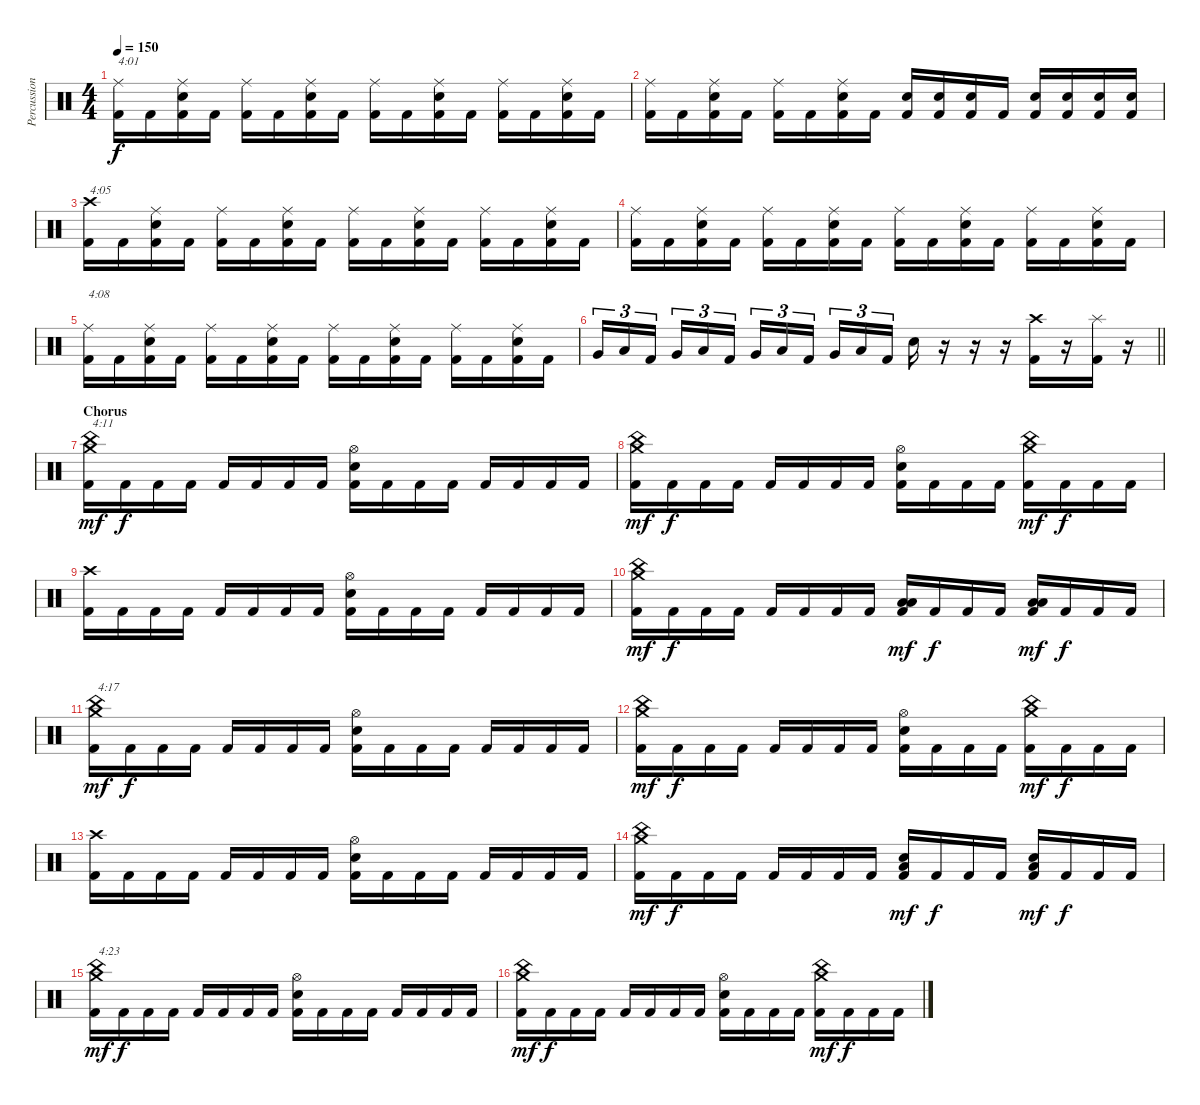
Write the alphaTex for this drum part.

\track ("Percussion" "Percussion") {instrument percussion}
\staff {score}
\articulation defaults
\ts (4 4)
\tempo 150
\clef neutral
\ks c
("Ride (middle)" "Kick (hit) 2").16{txt "4:01" dy f} "Kick (hit) 2".16 ("Ride (middle)" "Electric Snare (hit)" "Kick (hit) 2").16 "Kick (hit) 2".16 ("Ride (middle)" "Kick (hit) 2").16 "Kick (hit) 2".16 ("Ride (middle)" "Electric Snare (hit)" "Kick (hit) 2").16 "Kick (hit) 2".16 ("Ride (middle)" "Kick (hit) 2").16 "Kick (hit) 2".16 ("Ride (middle)" "Electric Snare (hit)" "Kick (hit) 2").16 "Kick (hit) 2".16 ("Ride (middle)" "Kick (hit) 2").16 "Kick (hit) 2".16 ("Ride (middle)" "Electric Snare (hit)" "Kick (hit) 2").16 "Kick (hit) 2".16 |
("Ride (middle)" "Kick (hit) 2").16 "Kick (hit) 2".16 ("Ride (middle)" "Electric Snare (hit)" "Kick (hit) 2").16 "Kick (hit) 2".16 ("Ride (middle)" "Kick (hit) 2").16 "Kick (hit) 2".16 ("Ride (middle)" "Electric Snare (hit)" "Kick (hit) 2").16 "Kick (hit) 2".16 ("Electric Snare (hit)" "Kick (hit) 2").16 ("Electric Snare (hit)" "Kick (hit) 2").16 ("Electric Snare (hit)" "Kick (hit) 2").16 "Kick (hit) 2".16 ("Electric Snare (hit)" "Kick (hit) 2").16 ("Electric Snare (hit)" "Kick (hit) 2").16 ("Electric Snare (hit)" "Kick (hit) 2").16 ("Electric Snare (hit)" "Kick (hit) 2").16 |
("Crash high (hit)" "Kick (hit) 2").16{txt "4:05"} "Kick (hit) 2".16 ("Ride (middle)" "Electric Snare (hit)" "Kick (hit) 2").16 "Kick (hit) 2".16 ("Ride (middle)" "Kick (hit) 2").16 "Kick (hit) 2".16 ("Ride (middle)" "Electric Snare (hit)" "Kick (hit) 2").16 "Kick (hit) 2".16 ("Ride (middle)" "Kick (hit) 2").16 "Kick (hit) 2".16 ("Ride (middle)" "Electric Snare (hit)" "Kick (hit) 2").16 "Kick (hit) 2".16 ("Ride (middle)" "Kick (hit) 2").16 "Kick (hit) 2".16 ("Ride (middle)" "Electric Snare (hit)" "Kick (hit) 2").16 "Kick (hit) 2".16 |
("Ride (middle)" "Kick (hit) 2").16 "Kick (hit) 2".16 ("Ride (middle)" "Electric Snare (hit)" "Kick (hit) 2").16 "Kick (hit) 2".16 ("Ride (middle)" "Kick (hit) 2").16 "Kick (hit) 2".16 ("Ride (middle)" "Electric Snare (hit)" "Kick (hit) 2").16 "Kick (hit) 2".16 ("Ride (middle)" "Kick (hit) 2").16 "Kick (hit) 2".16 ("Ride (middle)" "Electric Snare (hit)" "Kick (hit) 2").16 "Kick (hit) 2".16 ("Ride (middle)" "Kick (hit) 2").16 "Kick (hit) 2".16 ("Ride (middle)" "Electric Snare (hit)" "Kick (hit) 2").16 "Kick (hit) 2".16 |
("Ride (middle)" "Kick (hit) 2").16{txt "4:08"} "Kick (hit) 2".16 ("Ride (middle)" "Electric Snare (hit)" "Kick (hit) 2").16 "Kick (hit) 2".16 ("Ride (middle)" "Kick (hit) 2").16 "Kick (hit) 2".16 ("Ride (middle)" "Electric Snare (hit)" "Kick (hit) 2").16 "Kick (hit) 2".16 ("Ride (middle)" "Kick (hit) 2").16 "Kick (hit) 2".16 ("Ride (middle)" "Electric Snare (hit)" "Kick (hit) 2").16 "Kick (hit) 2".16 ("Ride (middle)" "Kick (hit) 2").16 "Kick (hit) 2".16 ("Ride (middle)" "Electric Snare (hit)" "Kick (hit) 2").16 "Kick (hit) 2".16 |
\barLineRight lightlight "Very Low Tom (hit)".16{tu (3 2)} "Low Floor Tom (hit)".16{tu (3 2)} "Kick (hit) 2".16{tu (3 2) beam splitsecondary} "Very Low Tom (hit)".16{tu (3 2)} "Low Floor Tom (hit)".16{tu (3 2)} "Kick (hit) 2".16{tu (3 2)} "Very Low Tom (hit)".16{tu (3 2)} "Low Floor Tom (hit)".16{tu (3 2)} "Kick (hit) 2".16{tu (3 2) beam splitsecondary} "Very Low Tom (hit)".16{tu (3 2)} "Low Floor Tom (hit)".16{tu (3 2)} "Kick (hit) 2".16{tu (3 2)} "Electric Snare (hit)".16
r.16 r.16 r.16 ("Crash high (hit)" "Kick (hit) 2").16 r.16 ("Splash (hit)" "Kick (hit) 2").16 r.16 |
\section ("" "Chorus")
("Crash medium (hit)" "China (hit)" "Kick (hit) 2").16{txt "4:11" dy mf} "Kick (hit) 2".16{dy f} "Kick (hit) 2".16 "Kick (hit) 2".16 "Kick (hit) 2".16 "Kick (hit) 2".16 "Kick (hit) 2".16 "Kick (hit) 2".16 ("Hi-Hat (open)" "Electric Snare (hit)" "Kick (hit) 2").16 "Kick (hit) 2".16 "Kick (hit) 2".16 "Kick (hit) 2".16 "Kick (hit) 2".16 "Kick (hit) 2".16 "Kick (hit) 2".16 "Kick (hit) 2".16 |
("Crash medium (hit)" "China (hit)" "Kick (hit) 2").16{dy mf} "Kick (hit) 2".16{dy f} "Kick (hit) 2".16 "Kick (hit) 2".16 "Kick (hit) 2".16 "Kick (hit) 2".16 "Kick (hit) 2".16 "Kick (hit) 2".16 ("Hi-Hat (open)" "Electric Snare (hit)" "Kick (hit) 2").16 "Kick (hit) 2".16 "Kick (hit) 2".16 "Kick (hit) 2".16 ("Crash medium (hit)" "China (hit)" "Kick (hit) 2").16{dy mf} "Kick (hit) 2".16{dy f} "Kick (hit) 2".16 "Kick (hit) 2".16 |
("Crash high (hit)" "Kick (hit) 2").16 "Kick (hit) 2".16 "Kick (hit) 2".16 "Kick (hit) 2".16 "Kick (hit) 2".16 "Kick (hit) 2".16 "Kick (hit) 2".16 "Kick (hit) 2".16 ("Hi-Hat (open)" "Electric Snare (hit)" "Kick (hit) 2").16 "Kick (hit) 2".16 "Kick (hit) 2".16 "Kick (hit) 2".16 "Kick (hit) 2".16 "Kick (hit) 2".16 "Kick (hit) 2".16 "Kick (hit) 2".16 |
("Crash medium (hit)" "China (hit)" "Kick (hit) 2").16{dy mf} "Kick (hit) 2".16{dy f} "Kick (hit) 2".16 "Kick (hit) 2".16 "Kick (hit) 2".16 "Kick (hit) 2".16 "Kick (hit) 2".16 "Kick (hit) 2".16 ("Low Tom (hit)" "Low Floor Tom (hit)" "Kick (hit) 2").16{dy mf} "Kick (hit) 2".16{dy f} "Kick (hit) 2".16 "Kick (hit) 2".16 ("Low Tom (hit)" "Low Floor Tom (hit)" "Kick (hit) 2").16{dy mf} "Kick (hit) 2".16{dy f} "Kick (hit) 2".16 "Kick (hit) 2".16 |
("Crash medium (hit)" "China (hit)" "Kick (hit) 2").16{txt "4:17" dy mf} "Kick (hit) 2".16{dy f} "Kick (hit) 2".16 "Kick (hit) 2".16 "Kick (hit) 2".16 "Kick (hit) 2".16 "Kick (hit) 2".16 "Kick (hit) 2".16 ("Hi-Hat (open)" "Electric Snare (hit)" "Kick (hit) 2").16 "Kick (hit) 2".16 "Kick (hit) 2".16 "Kick (hit) 2".16 "Kick (hit) 2".16 "Kick (hit) 2".16 "Kick (hit) 2".16 "Kick (hit) 2".16 |
("Crash medium (hit)" "China (hit)" "Kick (hit) 2").16{dy mf} "Kick (hit) 2".16{dy f} "Kick (hit) 2".16 "Kick (hit) 2".16 "Kick (hit) 2".16 "Kick (hit) 2".16 "Kick (hit) 2".16 "Kick (hit) 2".16 ("Hi-Hat (open)" "Electric Snare (hit)" "Kick (hit) 2").16 "Kick (hit) 2".16 "Kick (hit) 2".16 "Kick (hit) 2".16 ("Crash medium (hit)" "China (hit)" "Kick (hit) 2").16{dy mf} "Kick (hit) 2".16{dy f} "Kick (hit) 2".16 "Kick (hit) 2".16 |
("Crash high (hit)" "Kick (hit) 2").16 "Kick (hit) 2".16 "Kick (hit) 2".16 "Kick (hit) 2".16 "Kick (hit) 2".16 "Kick (hit) 2".16 "Kick (hit) 2".16 "Kick (hit) 2".16 ("Hi-Hat (open)" "Electric Snare (hit)" "Kick (hit) 2").16 "Kick (hit) 2".16 "Kick (hit) 2".16 "Kick (hit) 2".16 "Kick (hit) 2".16 "Kick (hit) 2".16 "Kick (hit) 2".16 "Kick (hit) 2".16 |
("Crash medium (hit)" "China (hit)" "Kick (hit) 2").16{dy mf} "Kick (hit) 2".16{dy f} "Kick (hit) 2".16 "Kick (hit) 2".16 "Kick (hit) 2".16 "Kick (hit) 2".16 "Kick (hit) 2".16 "Kick (hit) 2".16 ("Low Floor Tom (hit)" "Electric Snare (hit)" "Kick (hit) 2").16{dy mf} "Kick (hit) 2".16{dy f} "Kick (hit) 2".16 "Kick (hit) 2".16 ("Low Floor Tom (hit)" "Electric Snare (hit)" "Kick (hit) 2").16{dy mf} "Kick (hit) 2".16{dy f} "Kick (hit) 2".16 "Kick (hit) 2".16 |
("Crash medium (hit)" "China (hit)" "Kick (hit) 2").16{txt "4:23" dy mf} "Kick (hit) 2".16{dy f} "Kick (hit) 2".16 "Kick (hit) 2".16 "Kick (hit) 2".16 "Kick (hit) 2".16 "Kick (hit) 2".16 "Kick (hit) 2".16 ("Hi-Hat (open)" "Electric Snare (hit)" "Kick (hit) 2").16 "Kick (hit) 2".16 "Kick (hit) 2".16 "Kick (hit) 2".16 "Kick (hit) 2".16 "Kick (hit) 2".16 "Kick (hit) 2".16 "Kick (hit) 2".16 |
("Crash medium (hit)" "China (hit)" "Kick (hit) 2").16{dy mf} "Kick (hit) 2".16{dy f} "Kick (hit) 2".16 "Kick (hit) 2".16 "Kick (hit) 2".16 "Kick (hit) 2".16 "Kick (hit) 2".16 "Kick (hit) 2".16 ("Hi-Hat (open)" "Electric Snare (hit)" "Kick (hit) 2").16 "Kick (hit) 2".16 "Kick (hit) 2".16 "Kick (hit) 2".16 ("Crash medium (hit)" "China (hit)" "Kick (hit) 2").16{dy mf} "Kick (hit) 2".16{dy f} "Kick (hit) 2".16 "Kick (hit) 2".16
